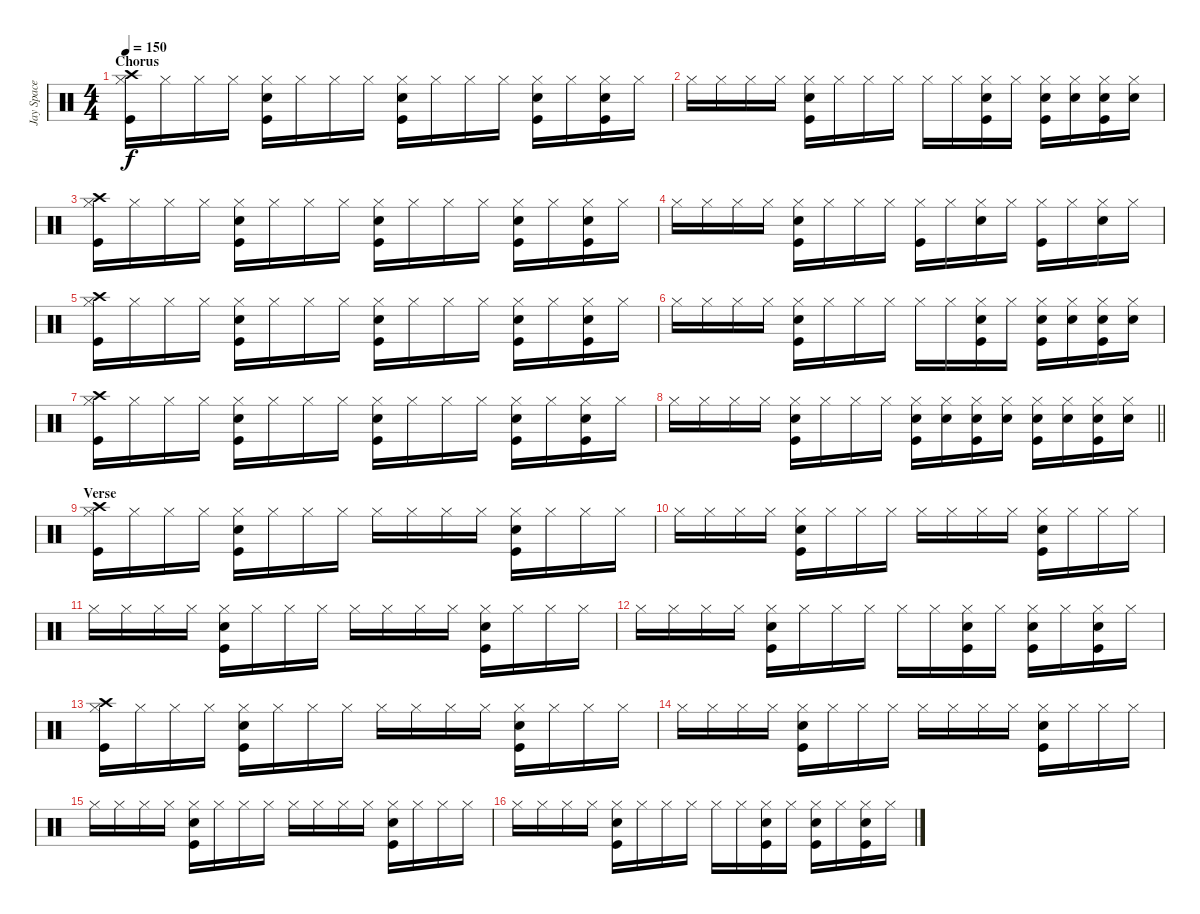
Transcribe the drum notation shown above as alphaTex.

\track ("Jay Space - Drums" "Jay Space ") {instrument percussion}
\staff {score}
\articulation defaults
\ts (4 4)
\section ("" "Chorus")
\tempo 150
\clef neutral
\ks c
("Hi-Hat (closed)" "Kick (hit)" "Crash high (hit)").16{dy f} "Hi-Hat (closed)".16 "Hi-Hat (closed)".16 "Hi-Hat (closed)".16 ("Hi-Hat (closed)" "Snare (hit) 2" "Kick (hit)").16 "Hi-Hat (closed)".16 "Hi-Hat (closed)".16 "Hi-Hat (closed)".16 ("Hi-Hat (closed)" "Snare (hit) 2" "Kick (hit)").16 "Hi-Hat (closed)".16 "Hi-Hat (closed)".16 "Hi-Hat (closed)".16 ("Hi-Hat (closed)" "Snare (hit) 2" "Kick (hit)").16 "Hi-Hat (closed)".16 ("Hi-Hat (closed)" "Snare (hit) 2" "Kick (hit)").16 "Hi-Hat (closed)".16 |
"Hi-Hat (closed)".16 "Hi-Hat (closed)".16 "Hi-Hat (closed)".16 "Hi-Hat (closed)".16 ("Hi-Hat (closed)" "Snare (hit) 2" "Kick (hit)").16 "Hi-Hat (closed)".16 "Hi-Hat (closed)".16 "Hi-Hat (closed)".16 "Hi-Hat (closed)".16 "Hi-Hat (closed)".16 ("Hi-Hat (closed)" "Snare (hit) 2" "Kick (hit)").16 "Hi-Hat (closed)".16 ("Hi-Hat (closed)" "Snare (hit) 2" "Kick (hit)").16 ("Hi-Hat (closed)" "Snare (hit) 2").16 ("Hi-Hat (closed)" "Snare (hit) 2" "Kick (hit)").16 ("Hi-Hat (closed)" "Snare (hit) 2").16 |
("Hi-Hat (closed)" "Kick (hit)" "Crash high (hit)").16 "Hi-Hat (closed)".16 "Hi-Hat (closed)".16 "Hi-Hat (closed)".16 ("Hi-Hat (closed)" "Snare (hit) 2" "Kick (hit)").16 "Hi-Hat (closed)".16 "Hi-Hat (closed)".16 "Hi-Hat (closed)".16 ("Hi-Hat (closed)" "Snare (hit) 2" "Kick (hit)").16 "Hi-Hat (closed)".16 "Hi-Hat (closed)".16 "Hi-Hat (closed)".16 ("Hi-Hat (closed)" "Snare (hit) 2" "Kick (hit)").16 "Hi-Hat (closed)".16 ("Hi-Hat (closed)" "Snare (hit) 2" "Kick (hit)").16 "Hi-Hat (closed)".16 |
"Hi-Hat (closed)".16 "Hi-Hat (closed)".16 "Hi-Hat (closed)".16 "Hi-Hat (closed)".16 ("Hi-Hat (closed)" "Snare (hit) 2" "Kick (hit)").16 "Hi-Hat (closed)".16 "Hi-Hat (closed)".16 "Hi-Hat (closed)".16 ("Hi-Hat (closed)" "Kick (hit)").16 "Hi-Hat (closed)".16 ("Hi-Hat (closed)" "Snare (hit) 2").16 "Hi-Hat (closed)".16 ("Hi-Hat (closed)" "Kick (hit)").16 "Hi-Hat (closed)".16 ("Hi-Hat (closed)" "Snare (hit) 2").16 "Hi-Hat (closed)".16 |
("Hi-Hat (closed)" "Kick (hit)" "Crash high (hit)").16 "Hi-Hat (closed)".16 "Hi-Hat (closed)".16 "Hi-Hat (closed)".16 ("Hi-Hat (closed)" "Snare (hit) 2" "Kick (hit)").16 "Hi-Hat (closed)".16 "Hi-Hat (closed)".16 "Hi-Hat (closed)".16 ("Hi-Hat (closed)" "Snare (hit) 2" "Kick (hit)").16 "Hi-Hat (closed)".16 "Hi-Hat (closed)".16 "Hi-Hat (closed)".16 ("Hi-Hat (closed)" "Snare (hit) 2" "Kick (hit)").16 "Hi-Hat (closed)".16 ("Hi-Hat (closed)" "Snare (hit) 2" "Kick (hit)").16 "Hi-Hat (closed)".16 |
"Hi-Hat (closed)".16 "Hi-Hat (closed)".16 "Hi-Hat (closed)".16 "Hi-Hat (closed)".16 ("Hi-Hat (closed)" "Snare (hit) 2" "Kick (hit)").16 "Hi-Hat (closed)".16 "Hi-Hat (closed)".16 "Hi-Hat (closed)".16 "Hi-Hat (closed)".16 "Hi-Hat (closed)".16 ("Hi-Hat (closed)" "Snare (hit) 2" "Kick (hit)").16 "Hi-Hat (closed)".16 ("Hi-Hat (closed)" "Snare (hit) 2" "Kick (hit)").16 ("Hi-Hat (closed)" "Snare (hit) 2").16 ("Hi-Hat (closed)" "Snare (hit) 2" "Kick (hit)").16 ("Hi-Hat (closed)" "Snare (hit) 2").16 |
("Hi-Hat (closed)" "Kick (hit)" "Crash high (hit)").16 "Hi-Hat (closed)".16 "Hi-Hat (closed)".16 "Hi-Hat (closed)".16 ("Hi-Hat (closed)" "Snare (hit) 2" "Kick (hit)").16 "Hi-Hat (closed)".16 "Hi-Hat (closed)".16 "Hi-Hat (closed)".16 ("Hi-Hat (closed)" "Snare (hit) 2" "Kick (hit)").16 "Hi-Hat (closed)".16 "Hi-Hat (closed)".16 "Hi-Hat (closed)".16 ("Hi-Hat (closed)" "Snare (hit) 2" "Kick (hit)").16 "Hi-Hat (closed)".16 ("Hi-Hat (closed)" "Snare (hit) 2" "Kick (hit)").16 "Hi-Hat (closed)".16 |
\barLineRight lightlight "Hi-Hat (closed)".16 "Hi-Hat (closed)".16 "Hi-Hat (closed)".16 "Hi-Hat (closed)".16
("Hi-Hat (closed)" "Snare (hit) 2" "Kick (hit)").16 "Hi-Hat (closed)".16 "Hi-Hat (closed)".16 "Hi-Hat (closed)".16 ("Hi-Hat (closed)" "Snare (hit) 2" "Kick (hit)").16 ("Hi-Hat (closed)" "Snare (hit) 2").16 ("Hi-Hat (closed)" "Snare (hit) 2" "Kick (hit)").16 ("Hi-Hat (closed)" "Snare (hit) 2").16 ("Hi-Hat (closed)" "Snare (hit) 2" "Kick (hit)").16 ("Hi-Hat (closed)" "Snare (hit) 2").16 ("Hi-Hat (closed)" "Snare (hit) 2" "Kick (hit)").16 ("Hi-Hat (closed)" "Snare (hit) 2").16 |
\section ("" "Verse")
("Hi-Hat (closed)" "Kick (hit)" "Crash high (hit)").16 "Hi-Hat (closed)".16 "Hi-Hat (closed)".16 "Hi-Hat (closed)".16 ("Hi-Hat (closed)" "Snare (hit) 2" "Kick (hit)").16 "Hi-Hat (closed)".16 "Hi-Hat (closed)".16 "Hi-Hat (closed)".16 "Hi-Hat (closed)".16 "Hi-Hat (closed)".16 "Hi-Hat (closed)".16 "Hi-Hat (closed)".16 ("Hi-Hat (closed)" "Snare (hit) 2" "Kick (hit)").16 "Hi-Hat (closed)".16 "Hi-Hat (closed)".16 "Hi-Hat (closed)".16 |
"Hi-Hat (closed)".16 "Hi-Hat (closed)".16 "Hi-Hat (closed)".16 "Hi-Hat (closed)".16 ("Hi-Hat (closed)" "Snare (hit) 2" "Kick (hit)").16 "Hi-Hat (closed)".16 "Hi-Hat (closed)".16 "Hi-Hat (closed)".16 "Hi-Hat (closed)".16 "Hi-Hat (closed)".16 "Hi-Hat (closed)".16 "Hi-Hat (closed)".16 ("Hi-Hat (closed)" "Snare (hit) 2" "Kick (hit)").16 "Hi-Hat (closed)".16 "Hi-Hat (closed)".16 "Hi-Hat (closed)".16 |
"Hi-Hat (closed)".16 "Hi-Hat (closed)".16 "Hi-Hat (closed)".16 "Hi-Hat (closed)".16 ("Hi-Hat (closed)" "Snare (hit) 2" "Kick (hit)").16 "Hi-Hat (closed)".16 "Hi-Hat (closed)".16 "Hi-Hat (closed)".16 "Hi-Hat (closed)".16 "Hi-Hat (closed)".16 "Hi-Hat (closed)".16 "Hi-Hat (closed)".16 ("Hi-Hat (closed)" "Snare (hit) 2" "Kick (hit)").16 "Hi-Hat (closed)".16 "Hi-Hat (closed)".16 "Hi-Hat (closed)".16 |
"Hi-Hat (closed)".16 "Hi-Hat (closed)".16 "Hi-Hat (closed)".16 "Hi-Hat (closed)".16 ("Hi-Hat (closed)" "Snare (hit) 2" "Kick (hit)").16 "Hi-Hat (closed)".16 "Hi-Hat (closed)".16 "Hi-Hat (closed)".16 "Hi-Hat (closed)".16 "Hi-Hat (closed)".16 ("Hi-Hat (closed)" "Snare (hit) 2" "Kick (hit)").16 "Hi-Hat (closed)".16 ("Hi-Hat (closed)" "Snare (hit) 2" "Kick (hit)").16 "Hi-Hat (closed)".16 ("Hi-Hat (closed)" "Snare (hit) 2" "Kick (hit)").16 "Hi-Hat (closed)".16 |
("Hi-Hat (closed)" "Kick (hit)" "Crash high (hit)").16 "Hi-Hat (closed)".16 "Hi-Hat (closed)".16 "Hi-Hat (closed)".16 ("Hi-Hat (closed)" "Snare (hit) 2" "Kick (hit)").16 "Hi-Hat (closed)".16 "Hi-Hat (closed)".16 "Hi-Hat (closed)".16 "Hi-Hat (closed)".16 "Hi-Hat (closed)".16 "Hi-Hat (closed)".16 "Hi-Hat (closed)".16 ("Hi-Hat (closed)" "Snare (hit) 2" "Kick (hit)").16 "Hi-Hat (closed)".16 "Hi-Hat (closed)".16 "Hi-Hat (closed)".16 |
"Hi-Hat (closed)".16 "Hi-Hat (closed)".16 "Hi-Hat (closed)".16 "Hi-Hat (closed)".16 ("Hi-Hat (closed)" "Snare (hit) 2" "Kick (hit)").16 "Hi-Hat (closed)".16 "Hi-Hat (closed)".16 "Hi-Hat (closed)".16 "Hi-Hat (closed)".16 "Hi-Hat (closed)".16 "Hi-Hat (closed)".16 "Hi-Hat (closed)".16 ("Hi-Hat (closed)" "Snare (hit) 2" "Kick (hit)").16 "Hi-Hat (closed)".16 "Hi-Hat (closed)".16 "Hi-Hat (closed)".16 |
"Hi-Hat (closed)".16 "Hi-Hat (closed)".16 "Hi-Hat (closed)".16 "Hi-Hat (closed)".16 ("Hi-Hat (closed)" "Snare (hit) 2" "Kick (hit)").16 "Hi-Hat (closed)".16 "Hi-Hat (closed)".16 "Hi-Hat (closed)".16 "Hi-Hat (closed)".16 "Hi-Hat (closed)".16 "Hi-Hat (closed)".16 "Hi-Hat (closed)".16 ("Hi-Hat (closed)" "Snare (hit) 2" "Kick (hit)").16 "Hi-Hat (closed)".16 "Hi-Hat (closed)".16 "Hi-Hat (closed)".16 |
"Hi-Hat (closed)".16 "Hi-Hat (closed)".16 "Hi-Hat (closed)".16 "Hi-Hat (closed)".16 ("Hi-Hat (closed)" "Snare (hit) 2" "Kick (hit)").16 "Hi-Hat (closed)".16 "Hi-Hat (closed)".16 "Hi-Hat (closed)".16 "Hi-Hat (closed)".16 "Hi-Hat (closed)".16 ("Hi-Hat (closed)" "Snare (hit) 2" "Kick (hit)").16 "Hi-Hat (closed)".16 ("Hi-Hat (closed)" "Snare (hit) 2" "Kick (hit)").16 "Hi-Hat (closed)".16 ("Hi-Hat (closed)" "Snare (hit) 2" "Kick (hit)").16 "Hi-Hat (closed)".16
